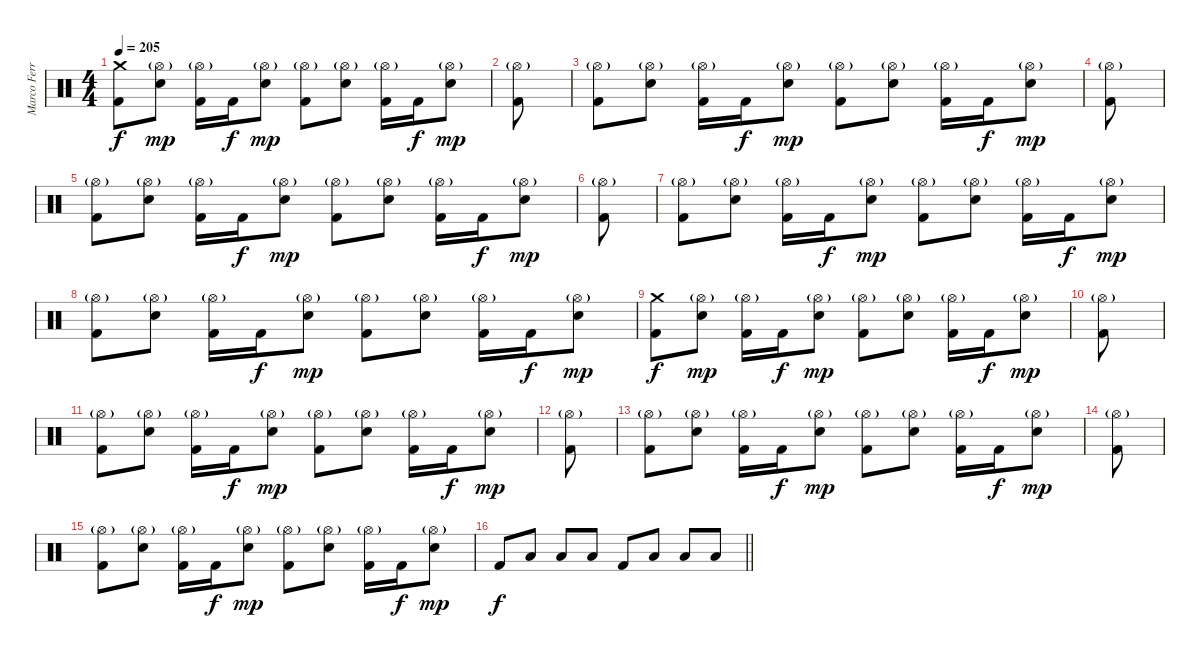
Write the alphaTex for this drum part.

\track ("Marco Ferro" "Marco Ferr") {instrument percussion}
\staff {score}
\articulation defaults
\ts (4 4)
\tempo 205
\clef neutral
\ks c
("Crash medium (hit)" "Kick (hit) 2").8{dy f} ("Hi-Hat (open)"{g} "Electric Snare (hit)").8{dy mp} ("Hi-Hat (open)"{g} "Kick (hit) 2").16 "Kick (hit) 2".16{dy f} ("Hi-Hat (open)"{g} "Electric Snare (hit)").8{dy mp} ("Hi-Hat (open)"{g} "Kick (hit) 2").8 ("Hi-Hat (open)"{g} "Electric Snare (hit)").8 ("Hi-Hat (open)"{g} "Kick (hit) 2").16 "Kick (hit) 2".16{dy f} ("Hi-Hat (open)"{g} "Electric Snare (hit)").8{dy mp} |
("Hi-Hat (open)"{g} "Kick (hit) 2").8 |
("Hi-Hat (open)"{g} "Kick (hit) 2").8 ("Hi-Hat (open)"{g} "Electric Snare (hit)").8 ("Hi-Hat (open)"{g} "Kick (hit) 2").16 "Kick (hit) 2".16{dy f} ("Hi-Hat (open)"{g} "Electric Snare (hit)").8{dy mp} ("Hi-Hat (open)"{g} "Kick (hit) 2").8 ("Hi-Hat (open)"{g} "Electric Snare (hit)").8 ("Hi-Hat (open)"{g} "Kick (hit) 2").16 "Kick (hit) 2".16{dy f} ("Hi-Hat (open)"{g} "Electric Snare (hit)").8{dy mp} |
("Hi-Hat (open)"{g} "Kick (hit) 2").8 |
("Hi-Hat (open)"{g} "Kick (hit) 2").8 ("Hi-Hat (open)"{g} "Electric Snare (hit)").8 ("Hi-Hat (open)"{g} "Kick (hit) 2").16 "Kick (hit) 2".16{dy f} ("Hi-Hat (open)"{g} "Electric Snare (hit)").8{dy mp} ("Hi-Hat (open)"{g} "Kick (hit) 2").8 ("Hi-Hat (open)"{g} "Electric Snare (hit)").8 ("Hi-Hat (open)"{g} "Kick (hit) 2").16 "Kick (hit) 2".16{dy f} ("Hi-Hat (open)"{g} "Electric Snare (hit)").8{dy mp} |
("Hi-Hat (open)"{g} "Kick (hit) 2").8 |
("Hi-Hat (open)"{g} "Kick (hit) 2").8 ("Hi-Hat (open)"{g} "Electric Snare (hit)").8 ("Hi-Hat (open)"{g} "Kick (hit) 2").16 "Kick (hit) 2".16{dy f} ("Hi-Hat (open)"{g} "Electric Snare (hit)").8{dy mp} ("Hi-Hat (open)"{g} "Kick (hit) 2").8 ("Hi-Hat (open)"{g} "Electric Snare (hit)").8 ("Hi-Hat (open)"{g} "Kick (hit) 2").16 "Kick (hit) 2".16{dy f} ("Hi-Hat (open)"{g} "Electric Snare (hit)").8{dy mp} |
("Hi-Hat (open)"{g} "Kick (hit) 2").8 ("Hi-Hat (open)"{g} "Electric Snare (hit)").8 ("Hi-Hat (open)"{g} "Kick (hit) 2").16 "Kick (hit) 2".16{dy f} ("Hi-Hat (open)"{g} "Electric Snare (hit)").8{dy mp} ("Hi-Hat (open)"{g} "Kick (hit) 2").8 ("Hi-Hat (open)"{g} "Electric Snare (hit)").8 ("Hi-Hat (open)"{g} "Kick (hit) 2").16 "Kick (hit) 2".16{dy f} ("Hi-Hat (open)"{g} "Electric Snare (hit)").8{dy mp} |
("Crash medium (hit)" "Kick (hit) 2").8{dy f} ("Hi-Hat (open)"{g} "Electric Snare (hit)").8{dy mp} ("Hi-Hat (open)"{g} "Kick (hit) 2").16 "Kick (hit) 2".16{dy f} ("Hi-Hat (open)"{g} "Electric Snare (hit)").8{dy mp} ("Hi-Hat (open)"{g} "Kick (hit) 2").8 ("Hi-Hat (open)"{g} "Electric Snare (hit)").8 ("Hi-Hat (open)"{g} "Kick (hit) 2").16 "Kick (hit) 2".16{dy f} ("Hi-Hat (open)"{g} "Electric Snare (hit)").8{dy mp} |
("Hi-Hat (open)"{g} "Kick (hit) 2").8 |
("Hi-Hat (open)"{g} "Kick (hit) 2").8 ("Hi-Hat (open)"{g} "Electric Snare (hit)").8 ("Hi-Hat (open)"{g} "Kick (hit) 2").16 "Kick (hit) 2".16{dy f} ("Hi-Hat (open)"{g} "Electric Snare (hit)").8{dy mp} ("Hi-Hat (open)"{g} "Kick (hit) 2").8 ("Hi-Hat (open)"{g} "Electric Snare (hit)").8 ("Hi-Hat (open)"{g} "Kick (hit) 2").16 "Kick (hit) 2".16{dy f} ("Hi-Hat (open)"{g} "Electric Snare (hit)").8{dy mp} |
("Hi-Hat (open)"{g} "Kick (hit) 2").8 |
("Hi-Hat (open)"{g} "Kick (hit) 2").8 ("Hi-Hat (open)"{g} "Electric Snare (hit)").8 ("Hi-Hat (open)"{g} "Kick (hit) 2").16 "Kick (hit) 2".16{dy f} ("Hi-Hat (open)"{g} "Electric Snare (hit)").8{dy mp} ("Hi-Hat (open)"{g} "Kick (hit) 2").8 ("Hi-Hat (open)"{g} "Electric Snare (hit)").8 ("Hi-Hat (open)"{g} "Kick (hit) 2").16 "Kick (hit) 2".16{dy f} ("Hi-Hat (open)"{g} "Electric Snare (hit)").8{dy mp} |
("Hi-Hat (open)"{g} "Kick (hit) 2").8 |
("Hi-Hat (open)"{g} "Kick (hit) 2").8 ("Hi-Hat (open)"{g} "Electric Snare (hit)").8 ("Hi-Hat (open)"{g} "Kick (hit) 2").16 "Kick (hit) 2".16{dy f} ("Hi-Hat (open)"{g} "Electric Snare (hit)").8{dy mp} ("Hi-Hat (open)"{g} "Kick (hit) 2").8 ("Hi-Hat (open)"{g} "Electric Snare (hit)").8 ("Hi-Hat (open)"{g} "Kick (hit) 2").16 "Kick (hit) 2".16{dy f} ("Hi-Hat (open)"{g} "Electric Snare (hit)").8{dy mp} |
\barLineRight lightlight "Kick (hit) 2".8{dy f} "Low Tom (hit)".8 "Low Tom (hit)".8 "Low Floor Tom (hit)".8 "Kick (hit) 2".8 "Low Tom (hit)".8 "Low Tom (hit)".8 "Low Floor Tom (hit)".8
